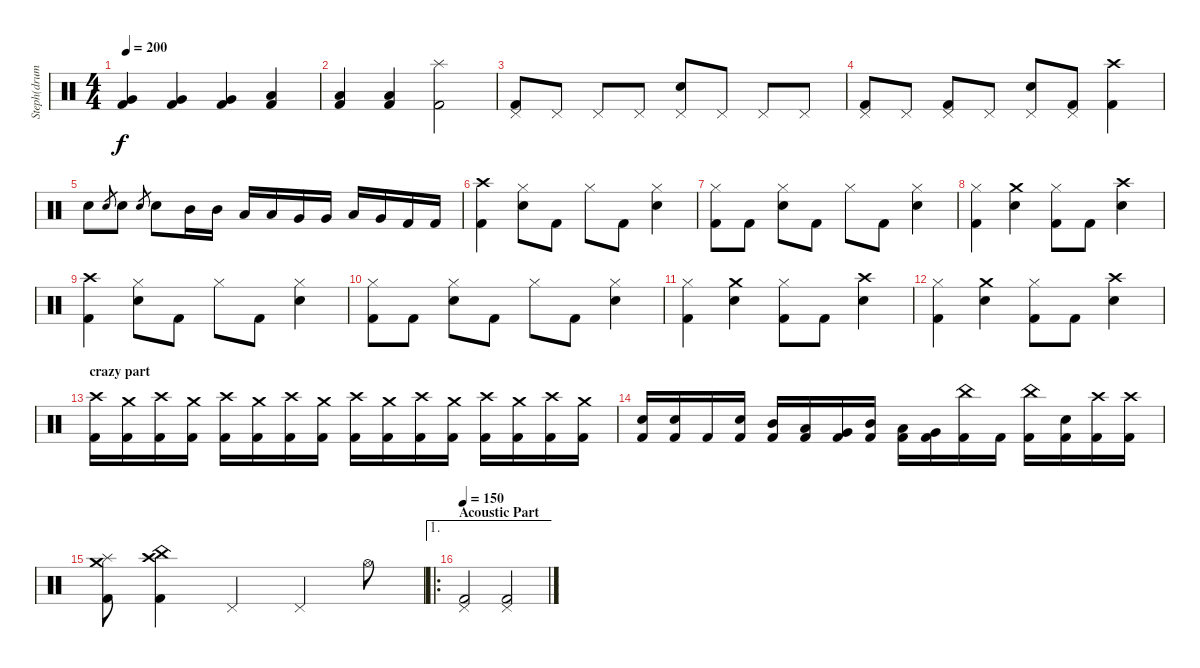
\track ("Steph(drums)" "Steph(drum") {instrument percussion}
\staff {score}
\articulation defaults
\ts (4 4)
\tempo 200
\clef neutral
\ks c
("Very Low Tom (hit)" "Kick (hit) 2").4{dy f} ("Very Low Tom (hit)" "Kick (hit) 2").4 ("Very Low Tom (hit)" "Kick (hit) 2").4 ("Low Tom (hit)" "Kick (hit) 2").4 |
("Low Tom (hit)" "Kick (hit) 2").4 ("Low Tom (hit)" "Kick (hit) 2").4 ("Splash (hit)" "Kick (hit) 2").2 |
("Kick (hit) 2" "Pedal Hi-Hat (hit)").8 "Pedal Hi-Hat (hit)".8 "Pedal Hi-Hat (hit)".8 "Pedal Hi-Hat (hit)".8 ("Electric Snare (hit)" "Pedal Hi-Hat (hit)").8 "Pedal Hi-Hat (hit)".8 "Pedal Hi-Hat (hit)".8 "Pedal Hi-Hat (hit)".8 |
("Kick (hit) 2" "Pedal Hi-Hat (hit)").8 "Pedal Hi-Hat (hit)".8 ("Kick (hit) 2" "Pedal Hi-Hat (hit)").8 "Pedal Hi-Hat (hit)".8 ("Electric Snare (hit)" "Pedal Hi-Hat (hit)").8 ("Kick (hit) 2" "Pedal Hi-Hat (hit)").8 ("Kick (hit) 2" "Crash high (hit)").4 |
"Electric Snare (hit)".8 "Electric Snare (hit)".8{gr} "Electric Snare (hit)".8 "Electric Snare (hit)".8{gr} "Electric Snare (hit)".8 "Mid Tom (hit)".16 "Mid Tom (hit)".16 "Low Tom (hit)".16 "Low Tom (hit)".16 "Very Low Tom (hit)".16 "Very Low Tom (hit)".16 "Low Tom (hit)".16 "Very Low Tom (hit)".16 "Kick (hit) 2".16 "Kick (hit) 2".16 |
("Crash high (hit)" "Kick (hit) 2").4 ("Hi-Hat (closed)" "Snare (hit) 2").8 "Kick (hit) 2".8 "Hi-Hat (closed)".8 "Kick (hit) 2".8 ("Hi-Hat (closed)" "Snare (hit) 2").4 |
("Hi-Hat (closed)" "Kick (hit) 2").8 "Kick (hit) 2".8 ("Hi-Hat (closed)" "Snare (hit) 2").8 "Kick (hit) 2".8 "Hi-Hat (closed)".8 "Kick (hit) 2".8 ("Hi-Hat (closed)" "Snare (hit) 2").4 |
("Hi-Hat (closed)" "Kick (hit) 2").4 ("Crash medium (hit)" "Snare (hit) 2").4 ("Hi-Hat (closed)" "Kick (hit) 2").8 "Kick (hit) 2".8 ("Crash high (hit)" "Snare (hit) 2").4 |
("Crash high (hit)" "Kick (hit) 2").4 ("Hi-Hat (closed)" "Snare (hit) 2").8 "Kick (hit) 2".8 "Hi-Hat (closed)".8 "Kick (hit) 2".8 ("Hi-Hat (closed)" "Snare (hit) 2").4 |
("Hi-Hat (closed)" "Kick (hit) 2").8 "Kick (hit) 2".8 ("Hi-Hat (closed)" "Snare (hit) 2").8 "Kick (hit) 2".8 "Hi-Hat (closed)".8 "Kick (hit) 2".8 ("Hi-Hat (closed)" "Snare (hit) 2").4 |
("Hi-Hat (closed)" "Kick (hit) 2").4 ("Crash medium (hit)" "Snare (hit) 2").4 ("Hi-Hat (closed)" "Kick (hit) 2").8 "Kick (hit) 2".8 ("Crash high (hit)" "Snare (hit) 2").4 |
("Hi-Hat (closed)" "Kick (hit) 2").4 ("Crash medium (hit)" "Snare (hit) 2").4 ("Hi-Hat (closed)" "Kick (hit) 2").8 "Kick (hit) 2".8 ("Crash high (hit)" "Snare (hit) 2").4 |
\section ("" "crazy part")
("Crash high (hit)" "Kick (hit) 2").16 ("Crash medium (hit)" "Kick (hit) 2").16 ("Crash high (hit)" "Kick (hit) 2").16 ("Crash medium (hit)" "Kick (hit) 2").16 ("Crash high (hit)" "Kick (hit) 2").16 ("Crash medium (hit)" "Kick (hit) 2").16 ("Crash high (hit)" "Kick (hit) 2").16 ("Crash medium (hit)" "Kick (hit) 2").16 ("Crash high (hit)" "Kick (hit) 2").16 ("Crash medium (hit)" "Kick (hit) 2").16 ("Crash high (hit)" "Kick (hit) 2").16 ("Crash medium (hit)" "Kick (hit) 2").16 ("Crash high (hit)" "Kick (hit) 2").16 ("Crash medium (hit)" "Kick (hit) 2").16 ("Crash high (hit)" "Kick (hit) 2").16 ("Crash medium (hit)" "Kick (hit) 2").16 |
("Electric Snare (hit)" "Kick (hit) 2").16 ("Electric Snare (hit)" "Kick (hit) 2").16 "Kick (hit) 2".16 ("Electric Snare (hit)" "Kick (hit) 2").16 ("Mid Tom (hit)" "Kick (hit) 2").16 ("Low Tom (hit)" "Kick (hit) 2").16 ("Very Low Tom (hit)" "Kick (hit) 2").16 ("Mid Tom (hit)" "Kick (hit) 2").16 ("Low Tom (hit)" "Kick (hit) 2").16 ("Very Low Tom (hit)" "Kick (hit) 2").16 ("China (hit)" "Kick (hit) 2").16 "Kick (hit) 2".16 ("China (hit)" "Kick (hit) 2").16 ("Electric Snare (hit)" "Kick (hit) 2").16 ("Crash high (hit)" "Kick (hit) 2").16 ("Crash high (hit)" "Kick (hit) 2").16 |
("Splash (hit)" "Crash medium (hit)" "Kick (hit) 2").8 ("Crash high (hit)" "China (hit)" "Kick (hit) 2").4 "Pedal Hi-Hat (hit)".4 "Pedal Hi-Hat (hit)".4 "Hi-Hat (open)".8 |
\ae 1
\ro
\section ("" "Acoustic Part")
\tempo 150
("Pedal Hi-Hat (hit)" "Kick (hit) 2").2 ("Pedal Hi-Hat (hit)" "Kick (hit) 2").2
